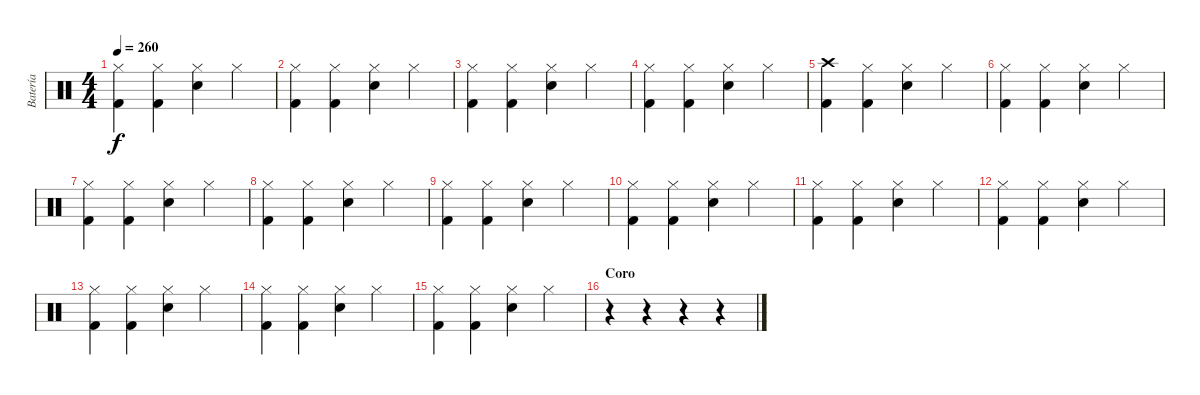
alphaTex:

\track ("Batería" "Batería") {instrument percussion}
\staff {score}
\articulation defaults
\ts (4 4)
\tempo 260
\clef neutral
\ks c
("Kick (hit) 2" "Hi-Hat (closed)").4{dy f} ("Kick (hit) 2" "Hi-Hat (closed)").4 ("Snare (hit) 2" "Hi-Hat (closed)").4 "Hi-Hat (closed)".4 |
("Kick (hit) 2" "Hi-Hat (closed)").4 ("Kick (hit) 2" "Hi-Hat (closed)").4 ("Snare (hit) 2" "Hi-Hat (closed)").4 "Hi-Hat (closed)".4 |
("Kick (hit) 2" "Hi-Hat (closed)").4 ("Kick (hit) 2" "Hi-Hat (closed)").4 ("Snare (hit) 2" "Hi-Hat (closed)").4 "Hi-Hat (closed)".4 |
("Kick (hit) 2" "Hi-Hat (closed)").4 ("Kick (hit) 2" "Hi-Hat (closed)").4 ("Snare (hit) 2" "Hi-Hat (closed)").4 "Hi-Hat (closed)".4 |
("Kick (hit) 2" "Crash high (hit)").4 ("Kick (hit) 2" "Hi-Hat (closed)").4 ("Snare (hit) 2" "Hi-Hat (closed)").4 "Hi-Hat (closed)".4 |
("Kick (hit) 2" "Hi-Hat (closed)").4 ("Kick (hit) 2" "Hi-Hat (closed)").4 ("Snare (hit) 2" "Hi-Hat (closed)").4 "Hi-Hat (closed)".4 |
("Kick (hit) 2" "Hi-Hat (closed)").4 ("Kick (hit) 2" "Hi-Hat (closed)").4 ("Snare (hit) 2" "Hi-Hat (closed)").4 "Hi-Hat (closed)".4 |
("Kick (hit) 2" "Hi-Hat (closed)").4 ("Kick (hit) 2" "Hi-Hat (closed)").4 ("Snare (hit) 2" "Hi-Hat (closed)").4 "Hi-Hat (closed)".4 |
("Kick (hit) 2" "Hi-Hat (closed)").4 ("Kick (hit) 2" "Hi-Hat (closed)").4 ("Snare (hit) 2" "Hi-Hat (closed)").4 "Hi-Hat (closed)".4 |
("Kick (hit) 2" "Hi-Hat (closed)").4 ("Kick (hit) 2" "Hi-Hat (closed)").4 ("Snare (hit) 2" "Hi-Hat (closed)").4 "Hi-Hat (closed)".4 |
("Kick (hit) 2" "Hi-Hat (closed)").4 ("Kick (hit) 2" "Hi-Hat (closed)").4 ("Snare (hit) 2" "Hi-Hat (closed)").4 "Hi-Hat (closed)".4 |
("Kick (hit) 2" "Hi-Hat (closed)").4 ("Kick (hit) 2" "Hi-Hat (closed)").4 ("Snare (hit) 2" "Hi-Hat (closed)").4 "Hi-Hat (closed)".4 |
("Kick (hit) 2" "Hi-Hat (closed)").4 ("Kick (hit) 2" "Hi-Hat (closed)").4 ("Snare (hit) 2" "Hi-Hat (closed)").4 "Hi-Hat (closed)".4 |
("Kick (hit) 2" "Hi-Hat (closed)").4 ("Kick (hit) 2" "Hi-Hat (closed)").4 ("Snare (hit) 2" "Hi-Hat (closed)").4 "Hi-Hat (closed)".4 |
("Kick (hit) 2" "Hi-Hat (closed)").4 ("Kick (hit) 2" "Hi-Hat (closed)").4 ("Snare (hit) 2" "Hi-Hat (closed)").4 "Hi-Hat (closed)".4 |
\section ("" "Coro")
r.4 r.4 r.4 r.4
